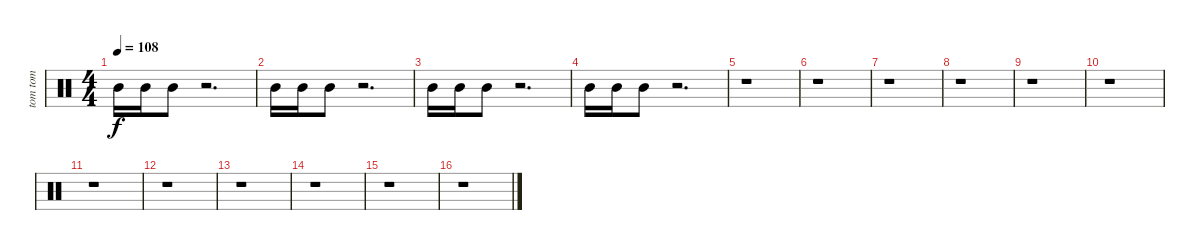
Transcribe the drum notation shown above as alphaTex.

\track ("tom tom             " "tom tom   ") {instrument percussion}
\staff {score}
\articulation defaults
\ts (4 4)
\tempo 108
\clef neutral
\ks c "Mid Tom (hit)".16{dy f} "Mid Tom (hit)".16 "Mid Tom (hit)".8
r.2{d} |
"Mid Tom (hit)".16 "Mid Tom (hit)".16 "Mid Tom (hit)".8 r.2{d} |
"Mid Tom (hit)".16 "Mid Tom (hit)".16 "Mid Tom (hit)".8 r.2{d} |
"Mid Tom (hit)".16 "Mid Tom (hit)".16 "Mid Tom (hit)".8 r.2{d} |
r.1 |
r.1 |
r.1 |
r.1 |
r.1 |
r.1 |
r.1 |
r.1 |
r.1 |
r.1 |
r.1 |
r.1
